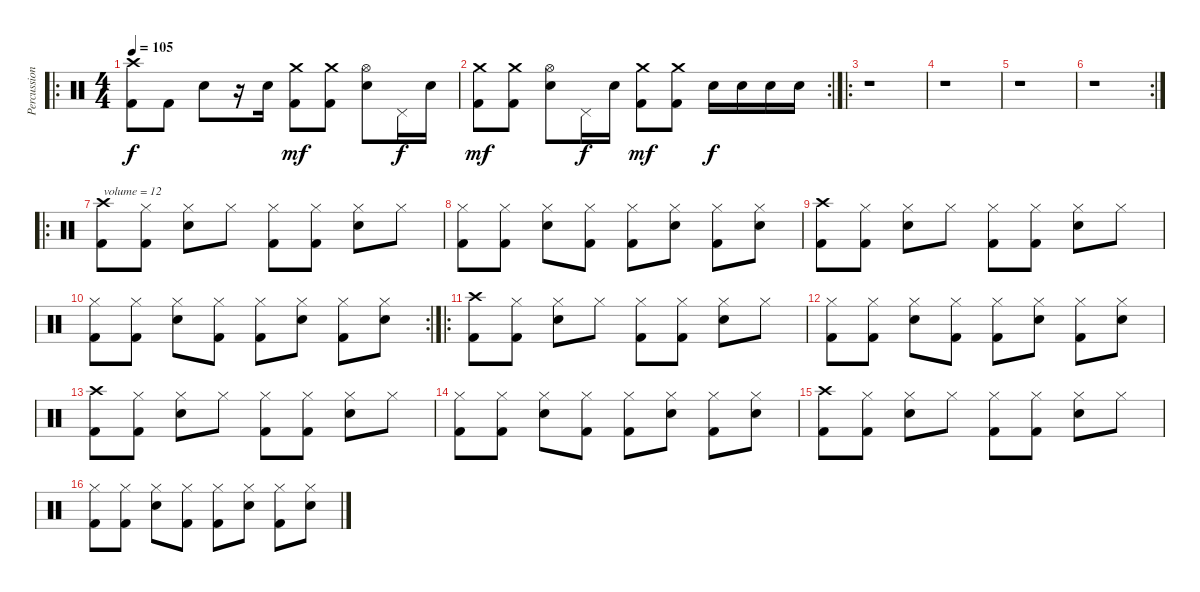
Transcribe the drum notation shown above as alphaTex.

\track ("Percussions" "Percussion") {instrument percussion}
\staff {score}
\articulation defaults
\ro
\ts (4 4)
\tempo 105
\clef neutral
\ks c
("Crash high (hit)" "Kick (hit) 2").8{dy f} "Kick (hit) 2".8 "Electric Snare (hit)".8 r.16 "Electric Snare (hit)".16 ("Crash medium (hit)" "Kick (hit) 2").8{dy mf} ("Crash medium (hit)" "Kick (hit) 2").8 ("Hi-Hat (open)" "Electric Snare (hit)").8 "Pedal Hi-Hat (hit)".16{dy f} "Electric Snare (hit)".16 |
\rc 2
("Crash medium (hit)" "Kick (hit) 2").8{dy mf} ("Crash medium (hit)" "Kick (hit) 2").8 ("Hi-Hat (open)" "Electric Snare (hit)").8 "Pedal Hi-Hat (hit)".16{dy f} "Electric Snare (hit)".16 ("Crash medium (hit)" "Kick (hit) 2").8{dy mf} ("Crash medium (hit)" "Kick (hit) 2").8 "Electric Snare (hit)".16{dy f} "Electric Snare (hit)".16 "Electric Snare (hit)".16 "Electric Snare (hit)".16 |
\ro
r.1 |
r.1 |
r.1 |
\rc 2
r.1 |
\ro
("Crash high (hit)" "Kick (hit) 2").8{txt "volume = 12" volume 12} ("Hi-Hat (closed)" "Kick (hit) 2").8 ("Hi-Hat (closed)" "Electric Snare (hit)").8 "Hi-Hat (closed)".8 ("Hi-Hat (closed)" "Kick (hit) 2").8 ("Hi-Hat (closed)" "Kick (hit) 2").8 ("Hi-Hat (closed)" "Electric Snare (hit)").8 "Hi-Hat (closed)".8 |
("Hi-Hat (closed)" "Kick (hit) 2").8 ("Hi-Hat (closed)" "Kick (hit) 2").8 ("Hi-Hat (closed)" "Electric Snare (hit)").8 ("Hi-Hat (closed)" "Kick (hit) 2").8 ("Hi-Hat (closed)" "Kick (hit) 2").8 ("Hi-Hat (closed)" "Electric Snare (hit)").8 ("Hi-Hat (closed)" "Kick (hit) 2").8 ("Hi-Hat (closed)" "Electric Snare (hit)").8 |
("Crash high (hit)" "Kick (hit) 2").8 ("Hi-Hat (closed)" "Kick (hit) 2").8 ("Hi-Hat (closed)" "Electric Snare (hit)").8 "Hi-Hat (closed)".8 ("Hi-Hat (closed)" "Kick (hit) 2").8 ("Hi-Hat (closed)" "Kick (hit) 2").8 ("Hi-Hat (closed)" "Electric Snare (hit)").8 "Hi-Hat (closed)".8 |
\rc 2
("Hi-Hat (closed)" "Kick (hit) 2").8 ("Hi-Hat (closed)" "Kick (hit) 2").8 ("Hi-Hat (closed)" "Electric Snare (hit)").8 ("Hi-Hat (closed)" "Kick (hit) 2").8 ("Hi-Hat (closed)" "Kick (hit) 2").8 ("Hi-Hat (closed)" "Electric Snare (hit)").8 ("Hi-Hat (closed)" "Kick (hit) 2").8 ("Hi-Hat (closed)" "Electric Snare (hit)").8 |
\ro
("Crash high (hit)" "Kick (hit) 2").8{volume 12} ("Hi-Hat (closed)" "Kick (hit) 2").8 ("Hi-Hat (closed)" "Electric Snare (hit)").8 "Hi-Hat (closed)".8 ("Hi-Hat (closed)" "Kick (hit) 2").8 ("Hi-Hat (closed)" "Kick (hit) 2").8 ("Hi-Hat (closed)" "Electric Snare (hit)").8 "Hi-Hat (closed)".8 |
("Hi-Hat (closed)" "Kick (hit) 2").8 ("Hi-Hat (closed)" "Kick (hit) 2").8 ("Hi-Hat (closed)" "Electric Snare (hit)").8 ("Hi-Hat (closed)" "Kick (hit) 2").8 ("Hi-Hat (closed)" "Kick (hit) 2").8 ("Hi-Hat (closed)" "Electric Snare (hit)").8 ("Hi-Hat (closed)" "Kick (hit) 2").8 ("Hi-Hat (closed)" "Electric Snare (hit)").8 |
("Crash high (hit)" "Kick (hit) 2").8 ("Hi-Hat (closed)" "Kick (hit) 2").8 ("Hi-Hat (closed)" "Electric Snare (hit)").8 "Hi-Hat (closed)".8 ("Hi-Hat (closed)" "Kick (hit) 2").8 ("Hi-Hat (closed)" "Kick (hit) 2").8 ("Hi-Hat (closed)" "Electric Snare (hit)").8 "Hi-Hat (closed)".8 |
("Hi-Hat (closed)" "Kick (hit) 2").8 ("Hi-Hat (closed)" "Kick (hit) 2").8 ("Hi-Hat (closed)" "Electric Snare (hit)").8 ("Hi-Hat (closed)" "Kick (hit) 2").8 ("Hi-Hat (closed)" "Kick (hit) 2").8 ("Hi-Hat (closed)" "Electric Snare (hit)").8 ("Hi-Hat (closed)" "Kick (hit) 2").8 ("Hi-Hat (closed)" "Electric Snare (hit)").8 |
("Crash high (hit)" "Kick (hit) 2").8{volume 12} ("Hi-Hat (closed)" "Kick (hit) 2").8 ("Hi-Hat (closed)" "Electric Snare (hit)").8 "Hi-Hat (closed)".8 ("Hi-Hat (closed)" "Kick (hit) 2").8 ("Hi-Hat (closed)" "Kick (hit) 2").8 ("Hi-Hat (closed)" "Electric Snare (hit)").8 "Hi-Hat (closed)".8 |
("Hi-Hat (closed)" "Kick (hit) 2").8 ("Hi-Hat (closed)" "Kick (hit) 2").8 ("Hi-Hat (closed)" "Electric Snare (hit)").8 ("Hi-Hat (closed)" "Kick (hit) 2").8 ("Hi-Hat (closed)" "Kick (hit) 2").8 ("Hi-Hat (closed)" "Electric Snare (hit)").8 ("Hi-Hat (closed)" "Kick (hit) 2").8 ("Hi-Hat (closed)" "Electric Snare (hit)").8
